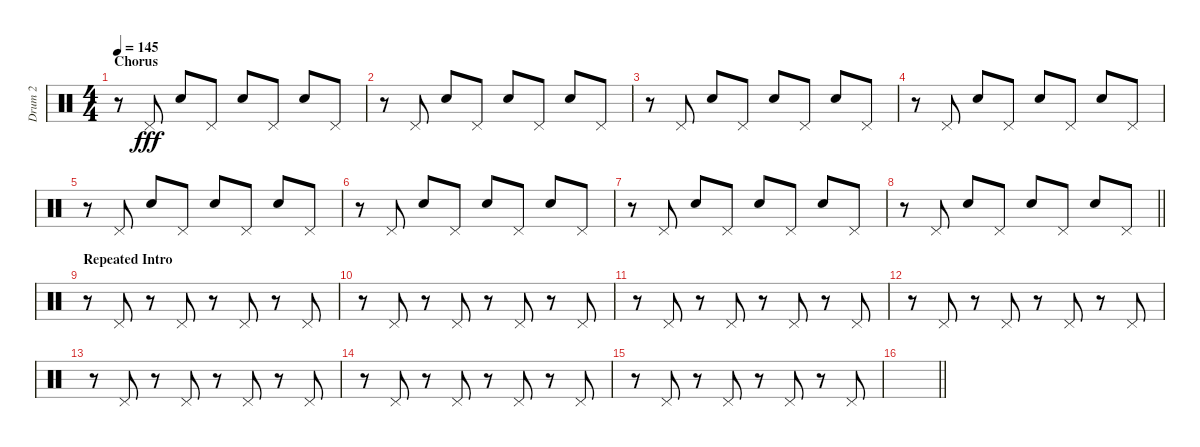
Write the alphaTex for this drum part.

\track ("Drum 2" "Drum 2") {instrument percussion}
\staff {score}
\articulation defaults
\ts (4 4)
\section ("" "Chorus")
\tempo 145
\clef neutral
\ks c
r.8{dy fff} "Pedal Hi-Hat (hit)".8 "Snare (hit) 2".8 "Pedal Hi-Hat (hit)".8 "Snare (hit) 2".8 "Pedal Hi-Hat (hit)".8 "Snare (hit) 2".8 "Pedal Hi-Hat (hit)".8 |
r.8 "Pedal Hi-Hat (hit)".8 "Snare (hit) 2".8 "Pedal Hi-Hat (hit)".8 "Snare (hit) 2".8 "Pedal Hi-Hat (hit)".8 "Snare (hit) 2".8 "Pedal Hi-Hat (hit)".8 |
r.8 "Pedal Hi-Hat (hit)".8 "Snare (hit) 2".8 "Pedal Hi-Hat (hit)".8 "Snare (hit) 2".8 "Pedal Hi-Hat (hit)".8 "Snare (hit) 2".8 "Pedal Hi-Hat (hit)".8 |
r.8 "Pedal Hi-Hat (hit)".8 "Snare (hit) 2".8 "Pedal Hi-Hat (hit)".8 "Snare (hit) 2".8 "Pedal Hi-Hat (hit)".8 "Snare (hit) 2".8 "Pedal Hi-Hat (hit)".8 |
r.8 "Pedal Hi-Hat (hit)".8 "Snare (hit) 2".8 "Pedal Hi-Hat (hit)".8 "Snare (hit) 2".8 "Pedal Hi-Hat (hit)".8 "Snare (hit) 2".8 "Pedal Hi-Hat (hit)".8 |
r.8 "Pedal Hi-Hat (hit)".8 "Snare (hit) 2".8 "Pedal Hi-Hat (hit)".8 "Snare (hit) 2".8 "Pedal Hi-Hat (hit)".8 "Snare (hit) 2".8 "Pedal Hi-Hat (hit)".8 |
r.8 "Pedal Hi-Hat (hit)".8 "Snare (hit) 2".8 "Pedal Hi-Hat (hit)".8 "Snare (hit) 2".8 "Pedal Hi-Hat (hit)".8 "Snare (hit) 2".8 "Pedal Hi-Hat (hit)".8 |
\barLineRight lightlight
r.8 "Pedal Hi-Hat (hit)".8 "Snare (hit) 2".8 "Pedal Hi-Hat (hit)".8 "Snare (hit) 2".8 "Pedal Hi-Hat (hit)".8 "Snare (hit) 2".8 "Pedal Hi-Hat (hit)".8 |
\section ("" "Repeated Intro")
r.8 "Pedal Hi-Hat (hit)".8 r.8 "Pedal Hi-Hat (hit)".8 r.8 "Pedal Hi-Hat (hit)".8 r.8 "Pedal Hi-Hat (hit)".8 |
r.8 "Pedal Hi-Hat (hit)".8 r.8 "Pedal Hi-Hat (hit)".8 r.8 "Pedal Hi-Hat (hit)".8 r.8 "Pedal Hi-Hat (hit)".8 |
r.8 "Pedal Hi-Hat (hit)".8 r.8 "Pedal Hi-Hat (hit)".8 r.8 "Pedal Hi-Hat (hit)".8 r.8 "Pedal Hi-Hat (hit)".8 |
r.8 "Pedal Hi-Hat (hit)".8 r.8 "Pedal Hi-Hat (hit)".8 r.8 "Pedal Hi-Hat (hit)".8 r.8 "Pedal Hi-Hat (hit)".8 |
r.8 "Pedal Hi-Hat (hit)".8 r.8 "Pedal Hi-Hat (hit)".8 r.8 "Pedal Hi-Hat (hit)".8 r.8 "Pedal Hi-Hat (hit)".8 |
r.8 "Pedal Hi-Hat (hit)".8 r.8 "Pedal Hi-Hat (hit)".8 r.8 "Pedal Hi-Hat (hit)".8 r.8 "Pedal Hi-Hat (hit)".8 |
r.8 "Pedal Hi-Hat (hit)".8 r.8 "Pedal Hi-Hat (hit)".8 r.8 "Pedal Hi-Hat (hit)".8 r.8 "Pedal Hi-Hat (hit)".8 |
\barLineRight lightlight
